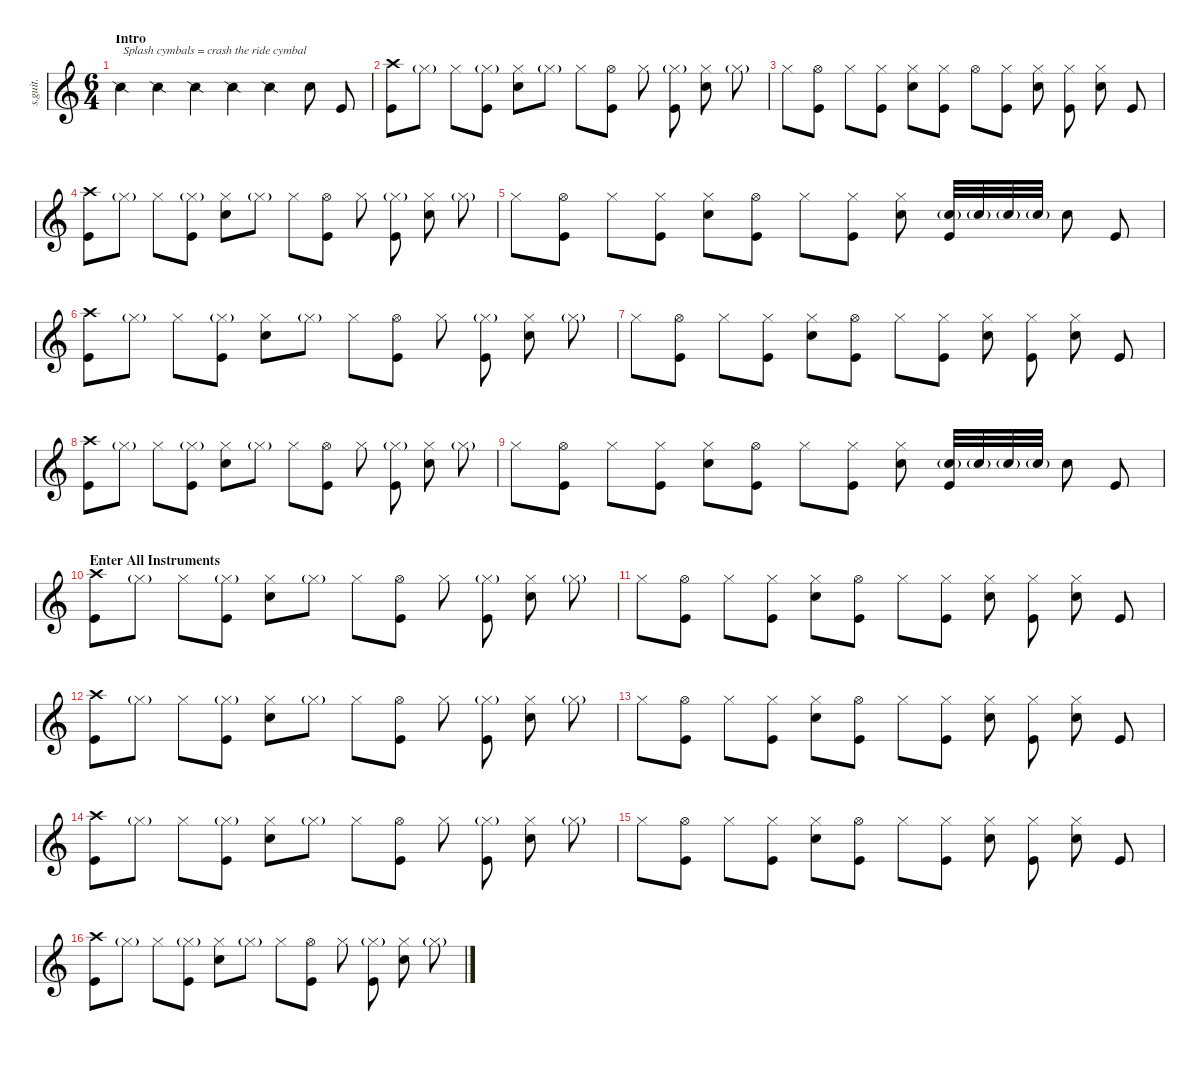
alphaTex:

\defaultSystemsLayout 4
\hideDynamics
\bracketExtendMode nobrackets
\track ("Steve Lamos" "s.guit.") {instrument percussion}
\staff {score}
\articulation defaults
\ts (6 4)
\beaming (8 2 2 2 2)
\section ("" "Intro")
\tempo (144 hide)
\clef g2
\ks c "Snare (side stick) 2".4{txt "Splash cymbals = crash the ride cymbal" lyrics (0 "") lyrics (1 "") lyrics (2 "") lyrics (3 "") lyrics (4 "") dy f} "Snare (side stick) 2".4{lyrics (0 "") lyrics (1 "") lyrics (2 "") lyrics (3 "") lyrics (4 "")} "Snare (side stick) 2".4{lyrics (0 "") lyrics (1 "") lyrics (2 "") lyrics (3 "") lyrics (4 "")} "Snare (side stick) 2".4{lyrics (0 "") lyrics (1 "") lyrics (2 "") lyrics (3 "") lyrics (4 "")} "Snare (side stick) 2".4{lyrics (0 "") lyrics (1 "") lyrics (2 "") lyrics (3 "") lyrics (4 "")} "Snare (hit) 2".8{lyrics (0 "") lyrics (1 "") lyrics (2 "") lyrics (3 "") lyrics (4 "")} "Kick (hit)".8{lyrics (0 "") lyrics (1 "") lyrics (2 "") lyrics (3 "") lyrics (4 "")}
|
("Crash high (hit)" "Kick (hit)").8{lyrics (0 "") lyrics (1 "") lyrics (2 "") lyrics (3 "") lyrics (4 "") dy mf} "Hi-Hat (closed)"{g}.8{lyrics (0 "") lyrics (1 "") lyrics (2 "") lyrics (3 "") lyrics (4 "") dy ff} "Hi-Hat (closed)".8{lyrics (0 "") lyrics (1 "") lyrics (2 "") lyrics (3 "") lyrics (4 "") dy mf} ("Hi-Hat (closed)"{g} "Kick (hit)").8{lyrics (0 "") lyrics (1 "") lyrics (2 "") lyrics (3 "") lyrics (4 "")} ("Hi-Hat (closed)" "Snare (hit) 2").8{lyrics (0 "") lyrics (1 "") lyrics (2 "") lyrics (3 "") lyrics (4 "")} "Hi-Hat (closed)"{g}.8{lyrics (0 "") lyrics (1 "") lyrics (2 "") lyrics (3 "") lyrics (4 "") dy ff} "Hi-Hat (closed)".8{lyrics (0 "") lyrics (1 "") lyrics (2 "") lyrics (3 "") lyrics (4 "") dy mf} ("Hi-Hat (open)" "Kick (hit)").8{lyrics (0 "") lyrics (1 "") lyrics (2 "") lyrics (3 "") lyrics (4 "")} "Hi-Hat (closed)".8{lyrics (0 "") lyrics (1 "") lyrics (2 "") lyrics (3 "") lyrics (4 "")} ("Hi-Hat (closed)"{g} "Kick (hit)").8{lyrics (0 "") lyrics (1 "") lyrics (2 "") lyrics (3 "") lyrics (4 "")} ("Hi-Hat (closed)" "Snare (hit) 2").8{lyrics (0 "") lyrics (1 "") lyrics (2 "") lyrics (3 "") lyrics (4 "")} "Hi-Hat (closed)"{g}.8{lyrics (0 "") lyrics (1 "") lyrics (2 "") lyrics (3 "") lyrics (4 "") dy ff} |
"Hi-Hat (closed)".8{lyrics (0 "") lyrics (1 "") lyrics (2 "") lyrics (3 "") lyrics (4 "") dy mf} ("Hi-Hat (open)" "Kick (hit)").8{lyrics (0 "") lyrics (1 "") lyrics (2 "") lyrics (3 "") lyrics (4 "")} "Hi-Hat (closed)".8{lyrics (0 "") lyrics (1 "") lyrics (2 "") lyrics (3 "") lyrics (4 "")} ("Hi-Hat (closed)" "Kick (hit)").8{lyrics (0 "") lyrics (1 "") lyrics (2 "") lyrics (3 "") lyrics (4 "")} ("Hi-Hat (closed)" "Snare (hit) 2").8{lyrics (0 "") lyrics (1 "") lyrics (2 "") lyrics (3 "") lyrics (4 "")} ("Hi-Hat (closed)" "Kick (hit)").8{lyrics (0 "") lyrics (1 "") lyrics (2 "") lyrics (3 "") lyrics (4 "")} "Hi-Hat (open)".8{lyrics (0 "") lyrics (1 "") lyrics (2 "") lyrics (3 "") lyrics (4 "")} ("Hi-Hat (closed)" "Kick (hit)").8{lyrics (0 "") lyrics (1 "") lyrics (2 "") lyrics (3 "") lyrics (4 "")} ("Hi-Hat (closed)" "Snare (hit) 2").8{lyrics (0 "") lyrics (1 "") lyrics (2 "") lyrics (3 "") lyrics (4 "")} ("Hi-Hat (closed)" "Kick (hit)").8{lyrics (0 "") lyrics (1 "") lyrics (2 "") lyrics (3 "") lyrics (4 "") dy f} ("Hi-Hat (closed)" "Snare (hit) 2").8{lyrics (0 "") lyrics (1 "") lyrics (2 "") lyrics (3 "") lyrics (4 "")} "Kick (hit)".8{lyrics (0 "") lyrics (1 "") lyrics (2 "") lyrics (3 "") lyrics (4 "")} |
("Crash high (hit)" "Kick (hit)").8{lyrics (0 "") lyrics (1 "") lyrics (2 "") lyrics (3 "") lyrics (4 "") dy mf} "Hi-Hat (closed)"{g}.8{lyrics (0 "") lyrics (1 "") lyrics (2 "") lyrics (3 "") lyrics (4 "") dy ff} "Hi-Hat (closed)".8{lyrics (0 "") lyrics (1 "") lyrics (2 "") lyrics (3 "") lyrics (4 "") dy mf} ("Hi-Hat (closed)"{g} "Kick (hit)").8{lyrics (0 "") lyrics (1 "") lyrics (2 "") lyrics (3 "") lyrics (4 "")} ("Hi-Hat (closed)" "Snare (hit) 2").8{lyrics (0 "") lyrics (1 "") lyrics (2 "") lyrics (3 "") lyrics (4 "")} "Hi-Hat (closed)"{g}.8{lyrics (0 "") lyrics (1 "") lyrics (2 "") lyrics (3 "") lyrics (4 "") dy ff} "Hi-Hat (closed)".8{lyrics (0 "") lyrics (1 "") lyrics (2 "") lyrics (3 "") lyrics (4 "") dy mf} ("Hi-Hat (open)" "Kick (hit)").8{lyrics (0 "") lyrics (1 "") lyrics (2 "") lyrics (3 "") lyrics (4 "")} "Hi-Hat (closed)".8{lyrics (0 "") lyrics (1 "") lyrics (2 "") lyrics (3 "") lyrics (4 "")} ("Hi-Hat (closed)"{g} "Kick (hit)").8{lyrics (0 "") lyrics (1 "") lyrics (2 "") lyrics (3 "") lyrics (4 "")} ("Hi-Hat (closed)" "Snare (hit) 2").8{lyrics (0 "") lyrics (1 "") lyrics (2 "") lyrics (3 "") lyrics (4 "")} "Hi-Hat (closed)"{g}.8{lyrics (0 "") lyrics (1 "") lyrics (2 "") lyrics (3 "") lyrics (4 "") dy ff} |
"Hi-Hat (closed)".8{lyrics (0 "") lyrics (1 "") lyrics (2 "") lyrics (3 "") lyrics (4 "") dy mf} ("Hi-Hat (open)" "Kick (hit)").8{lyrics (0 "") lyrics (1 "") lyrics (2 "") lyrics (3 "") lyrics (4 "")} "Hi-Hat (closed)".8{lyrics (0 "") lyrics (1 "") lyrics (2 "") lyrics (3 "") lyrics (4 "")} ("Hi-Hat (closed)" "Kick (hit)").8{lyrics (0 "") lyrics (1 "") lyrics (2 "") lyrics (3 "") lyrics (4 "")} ("Hi-Hat (closed)" "Snare (hit) 2").8{lyrics (0 "") lyrics (1 "") lyrics (2 "") lyrics (3 "") lyrics (4 "")} ("Hi-Hat (open)" "Kick (hit)").8{lyrics (0 "") lyrics (1 "") lyrics (2 "") lyrics (3 "") lyrics (4 "")} "Hi-Hat (closed)".8{lyrics (0 "") lyrics (1 "") lyrics (2 "") lyrics (3 "") lyrics (4 "")} ("Hi-Hat (closed)" "Kick (hit)").8{lyrics (0 "") lyrics (1 "") lyrics (2 "") lyrics (3 "") lyrics (4 "")} ("Hi-Hat (closed)" "Snare (hit) 2").8{lyrics (0 "") lyrics (1 "") lyrics (2 "") lyrics (3 "") lyrics (4 "")} ("Kick (hit)" "Snare (hit) 2"{g}).32{lyrics (0 "") lyrics (1 "") lyrics (2 "") lyrics (3 "") lyrics (4 "")} "Snare (hit) 2"{g}.32{lyrics (0 "") lyrics (1 "") lyrics (2 "") lyrics (3 "") lyrics (4 "") dy f} "Snare (hit) 2"{g}.32{lyrics (0 "") lyrics (1 "") lyrics (2 "") lyrics (3 "") lyrics (4 "")} "Snare (hit) 2"{g}.32{lyrics (0 "") lyrics (1 "") lyrics (2 "") lyrics (3 "") lyrics (4 "")} "Snare (hit) 2".8{lyrics (0 "") lyrics (1 "") lyrics (2 "") lyrics (3 "") lyrics (4 "")} "Kick (hit)".8{lyrics (0 "") lyrics (1 "") lyrics (2 "") lyrics (3 "") lyrics (4 "") dy mf} |
("Crash high (hit)" "Kick (hit)").8{lyrics (0 "") lyrics (1 "") lyrics (2 "") lyrics (3 "") lyrics (4 "")} "Hi-Hat (closed)"{g}.8{lyrics (0 "") lyrics (1 "") lyrics (2 "") lyrics (3 "") lyrics (4 "") dy ff} "Hi-Hat (closed)".8{lyrics (0 "") lyrics (1 "") lyrics (2 "") lyrics (3 "") lyrics (4 "") dy mf} ("Hi-Hat (closed)"{g} "Kick (hit)").8{lyrics (0 "") lyrics (1 "") lyrics (2 "") lyrics (3 "") lyrics (4 "")} ("Hi-Hat (closed)" "Snare (hit) 2").8{lyrics (0 "") lyrics (1 "") lyrics (2 "") lyrics (3 "") lyrics (4 "")} "Hi-Hat (closed)"{g}.8{lyrics (0 "") lyrics (1 "") lyrics (2 "") lyrics (3 "") lyrics (4 "") dy ff} "Hi-Hat (closed)".8{lyrics (0 "") lyrics (1 "") lyrics (2 "") lyrics (3 "") lyrics (4 "") dy mf} ("Hi-Hat (open)" "Kick (hit)").8{lyrics (0 "") lyrics (1 "") lyrics (2 "") lyrics (3 "") lyrics (4 "")} "Hi-Hat (closed)".8{lyrics (0 "") lyrics (1 "") lyrics (2 "") lyrics (3 "") lyrics (4 "")} ("Hi-Hat (closed)"{g} "Kick (hit)").8{lyrics (0 "") lyrics (1 "") lyrics (2 "") lyrics (3 "") lyrics (4 "")} ("Hi-Hat (closed)" "Snare (hit) 2").8{lyrics (0 "") lyrics (1 "") lyrics (2 "") lyrics (3 "") lyrics (4 "")} "Hi-Hat (closed)"{g}.8{lyrics (0 "") lyrics (1 "") lyrics (2 "") lyrics (3 "") lyrics (4 "") dy ff} |
"Hi-Hat (closed)".8{lyrics (0 "") lyrics (1 "") lyrics (2 "") lyrics (3 "") lyrics (4 "") dy mf} ("Hi-Hat (open)" "Kick (hit)").8{lyrics (0 "") lyrics (1 "") lyrics (2 "") lyrics (3 "") lyrics (4 "")} "Hi-Hat (closed)".8{lyrics (0 "") lyrics (1 "") lyrics (2 "") lyrics (3 "") lyrics (4 "")} ("Hi-Hat (closed)" "Kick (hit)").8{lyrics (0 "") lyrics (1 "") lyrics (2 "") lyrics (3 "") lyrics (4 "")} ("Hi-Hat (closed)" "Snare (hit) 2").8{lyrics (0 "") lyrics (1 "") lyrics (2 "") lyrics (3 "") lyrics (4 "")} ("Hi-Hat (open)" "Kick (hit)").8{lyrics (0 "") lyrics (1 "") lyrics (2 "") lyrics (3 "") lyrics (4 "")} "Hi-Hat (closed)".8{lyrics (0 "") lyrics (1 "") lyrics (2 "") lyrics (3 "") lyrics (4 "")} ("Hi-Hat (closed)" "Kick (hit)").8{lyrics (0 "") lyrics (1 "") lyrics (2 "") lyrics (3 "") lyrics (4 "")} ("Hi-Hat (closed)" "Snare (hit) 2").8{lyrics (0 "") lyrics (1 "") lyrics (2 "") lyrics (3 "") lyrics (4 "")} ("Hi-Hat (closed)" "Kick (hit)").8{lyrics (0 "") lyrics (1 "") lyrics (2 "") lyrics (3 "") lyrics (4 "") dy f} ("Hi-Hat (closed)" "Snare (hit) 2").8{lyrics (0 "") lyrics (1 "") lyrics (2 "") lyrics (3 "") lyrics (4 "")} "Kick (hit)".8{lyrics (0 "") lyrics (1 "") lyrics (2 "") lyrics (3 "") lyrics (4 "")} |
("Crash high (hit)" "Kick (hit)").8{lyrics (0 "") lyrics (1 "") lyrics (2 "") lyrics (3 "") lyrics (4 "") dy mf} "Hi-Hat (closed)"{g}.8{lyrics (0 "") lyrics (1 "") lyrics (2 "") lyrics (3 "") lyrics (4 "") dy ff} "Hi-Hat (closed)".8{lyrics (0 "") lyrics (1 "") lyrics (2 "") lyrics (3 "") lyrics (4 "") dy mf} ("Hi-Hat (closed)"{g} "Kick (hit)").8{lyrics (0 "") lyrics (1 "") lyrics (2 "") lyrics (3 "") lyrics (4 "")} ("Hi-Hat (closed)" "Snare (hit) 2").8{lyrics (0 "") lyrics (1 "") lyrics (2 "") lyrics (3 "") lyrics (4 "")} "Hi-Hat (closed)"{g}.8{lyrics (0 "") lyrics (1 "") lyrics (2 "") lyrics (3 "") lyrics (4 "") dy ff} "Hi-Hat (closed)".8{lyrics (0 "") lyrics (1 "") lyrics (2 "") lyrics (3 "") lyrics (4 "") dy mf} ("Hi-Hat (open)" "Kick (hit)").8{lyrics (0 "") lyrics (1 "") lyrics (2 "") lyrics (3 "") lyrics (4 "")} "Hi-Hat (closed)".8{lyrics (0 "") lyrics (1 "") lyrics (2 "") lyrics (3 "") lyrics (4 "")} ("Hi-Hat (closed)"{g} "Kick (hit)").8{lyrics (0 "") lyrics (1 "") lyrics (2 "") lyrics (3 "") lyrics (4 "")} ("Hi-Hat (closed)" "Snare (hit) 2").8{lyrics (0 "") lyrics (1 "") lyrics (2 "") lyrics (3 "") lyrics (4 "")} "Hi-Hat (closed)"{g}.8{lyrics (0 "") lyrics (1 "") lyrics (2 "") lyrics (3 "") lyrics (4 "") dy ff} |
"Hi-Hat (closed)".8{lyrics (0 "") lyrics (1 "") lyrics (2 "") lyrics (3 "") lyrics (4 "") dy mf} ("Hi-Hat (open)" "Kick (hit)").8{lyrics (0 "") lyrics (1 "") lyrics (2 "") lyrics (3 "") lyrics (4 "")} "Hi-Hat (closed)".8{lyrics (0 "") lyrics (1 "") lyrics (2 "") lyrics (3 "") lyrics (4 "")} ("Hi-Hat (closed)" "Kick (hit)").8{lyrics (0 "") lyrics (1 "") lyrics (2 "") lyrics (3 "") lyrics (4 "")} ("Hi-Hat (closed)" "Snare (hit) 2").8{lyrics (0 "") lyrics (1 "") lyrics (2 "") lyrics (3 "") lyrics (4 "")} ("Hi-Hat (open)" "Kick (hit)").8{lyrics (0 "") lyrics (1 "") lyrics (2 "") lyrics (3 "") lyrics (4 "")} "Hi-Hat (closed)".8{lyrics (0 "") lyrics (1 "") lyrics (2 "") lyrics (3 "") lyrics (4 "")} ("Hi-Hat (closed)" "Kick (hit)").8{lyrics (0 "") lyrics (1 "") lyrics (2 "") lyrics (3 "") lyrics (4 "")} ("Hi-Hat (closed)" "Snare (hit) 2").8{lyrics (0 "") lyrics (1 "") lyrics (2 "") lyrics (3 "") lyrics (4 "")} ("Kick (hit)" "Snare (hit) 2"{g}).32{lyrics (0 "") lyrics (1 "") lyrics (2 "") lyrics (3 "") lyrics (4 "")} "Snare (hit) 2"{g}.32{lyrics (0 "") lyrics (1 "") lyrics (2 "") lyrics (3 "") lyrics (4 "") dy f} "Snare (hit) 2"{g}.32{lyrics (0 "") lyrics (1 "") lyrics (2 "") lyrics (3 "") lyrics (4 "")} "Snare (hit) 2"{g}.32{lyrics (0 "") lyrics (1 "") lyrics (2 "") lyrics (3 "") lyrics (4 "")} "Snare (hit) 2".8{lyrics (0 "") lyrics (1 "") lyrics (2 "") lyrics (3 "") lyrics (4 "")} "Kick (hit)".8{lyrics (0 "") lyrics (1 "") lyrics (2 "") lyrics (3 "") lyrics (4 "") dy mf} |
\section ("" "Enter All Instruments")
("Crash high (hit)" "Kick (hit)").8{lyrics (0 "") lyrics (1 "") lyrics (2 "") lyrics (3 "") lyrics (4 "")} "Hi-Hat (closed)"{g}.8{lyrics (0 "") lyrics (1 "") lyrics (2 "") lyrics (3 "") lyrics (4 "") dy ff} "Hi-Hat (closed)".8{lyrics (0 "") lyrics (1 "") lyrics (2 "") lyrics (3 "") lyrics (4 "") dy mf} ("Hi-Hat (closed)"{g} "Kick (hit)").8{lyrics (0 "") lyrics (1 "") lyrics (2 "") lyrics (3 "") lyrics (4 "")} ("Hi-Hat (closed)" "Snare (hit) 2").8{lyrics (0 "") lyrics (1 "") lyrics (2 "") lyrics (3 "") lyrics (4 "")} "Hi-Hat (closed)"{g}.8{lyrics (0 "") lyrics (1 "") lyrics (2 "") lyrics (3 "") lyrics (4 "") dy ff} "Hi-Hat (closed)".8{lyrics (0 "") lyrics (1 "") lyrics (2 "") lyrics (3 "") lyrics (4 "") dy mf} ("Hi-Hat (open)" "Kick (hit)").8{lyrics (0 "") lyrics (1 "") lyrics (2 "") lyrics (3 "") lyrics (4 "")} "Hi-Hat (closed)".8{lyrics (0 "") lyrics (1 "") lyrics (2 "") lyrics (3 "") lyrics (4 "")} ("Hi-Hat (closed)"{g} "Kick (hit)").8{lyrics (0 "") lyrics (1 "") lyrics (2 "") lyrics (3 "") lyrics (4 "")} ("Hi-Hat (closed)" "Snare (hit) 2").8{lyrics (0 "") lyrics (1 "") lyrics (2 "") lyrics (3 "") lyrics (4 "")} "Hi-Hat (closed)"{g}.8{lyrics (0 "") lyrics (1 "") lyrics (2 "") lyrics (3 "") lyrics (4 "") dy ff} |
"Hi-Hat (closed)".8{lyrics (0 "") lyrics (1 "") lyrics (2 "") lyrics (3 "") lyrics (4 "") dy mf} ("Hi-Hat (open)" "Kick (hit)").8{lyrics (0 "") lyrics (1 "") lyrics (2 "") lyrics (3 "") lyrics (4 "")} "Hi-Hat (closed)".8{lyrics (0 "") lyrics (1 "") lyrics (2 "") lyrics (3 "") lyrics (4 "")} ("Hi-Hat (closed)" "Kick (hit)").8{lyrics (0 "") lyrics (1 "") lyrics (2 "") lyrics (3 "") lyrics (4 "")} ("Hi-Hat (closed)" "Snare (hit) 2").8{lyrics (0 "") lyrics (1 "") lyrics (2 "") lyrics (3 "") lyrics (4 "")} ("Hi-Hat (open)" "Kick (hit)").8{lyrics (0 "") lyrics (1 "") lyrics (2 "") lyrics (3 "") lyrics (4 "")} "Hi-Hat (closed)".8{lyrics (0 "") lyrics (1 "") lyrics (2 "") lyrics (3 "") lyrics (4 "")} ("Hi-Hat (closed)" "Kick (hit)").8{lyrics (0 "") lyrics (1 "") lyrics (2 "") lyrics (3 "") lyrics (4 "")} ("Hi-Hat (closed)" "Snare (hit) 2").8{lyrics (0 "") lyrics (1 "") lyrics (2 "") lyrics (3 "") lyrics (4 "")} ("Hi-Hat (closed)" "Kick (hit)").8{lyrics (0 "") lyrics (1 "") lyrics (2 "") lyrics (3 "") lyrics (4 "") dy f} ("Hi-Hat (closed)" "Snare (hit) 2").8{lyrics (0 "") lyrics (1 "") lyrics (2 "") lyrics (3 "") lyrics (4 "")} "Kick (hit)".8{lyrics (0 "") lyrics (1 "") lyrics (2 "") lyrics (3 "") lyrics (4 "")} |
("Crash high (hit)" "Kick (hit)").8{lyrics (0 "") lyrics (1 "") lyrics (2 "") lyrics (3 "") lyrics (4 "") dy mf} "Hi-Hat (closed)"{g}.8{lyrics (0 "") lyrics (1 "") lyrics (2 "") lyrics (3 "") lyrics (4 "") dy ff} "Hi-Hat (closed)".8{lyrics (0 "") lyrics (1 "") lyrics (2 "") lyrics (3 "") lyrics (4 "") dy mf} ("Hi-Hat (closed)"{g} "Kick (hit)").8{lyrics (0 "") lyrics (1 "") lyrics (2 "") lyrics (3 "") lyrics (4 "")} ("Hi-Hat (closed)" "Snare (hit) 2").8{lyrics (0 "") lyrics (1 "") lyrics (2 "") lyrics (3 "") lyrics (4 "")} "Hi-Hat (closed)"{g}.8{lyrics (0 "") lyrics (1 "") lyrics (2 "") lyrics (3 "") lyrics (4 "") dy ff} "Hi-Hat (closed)".8{lyrics (0 "") lyrics (1 "") lyrics (2 "") lyrics (3 "") lyrics (4 "") dy mf} ("Hi-Hat (open)" "Kick (hit)").8{lyrics (0 "") lyrics (1 "") lyrics (2 "") lyrics (3 "") lyrics (4 "")} "Hi-Hat (closed)".8{lyrics (0 "") lyrics (1 "") lyrics (2 "") lyrics (3 "") lyrics (4 "")} ("Hi-Hat (closed)"{g} "Kick (hit)").8{lyrics (0 "") lyrics (1 "") lyrics (2 "") lyrics (3 "") lyrics (4 "")} ("Hi-Hat (closed)" "Snare (hit) 2").8{lyrics (0 "") lyrics (1 "") lyrics (2 "") lyrics (3 "") lyrics (4 "")} "Hi-Hat (closed)"{g}.8{lyrics (0 "") lyrics (1 "") lyrics (2 "") lyrics (3 "") lyrics (4 "") dy ff} |
"Hi-Hat (closed)".8{lyrics (0 "") lyrics (1 "") lyrics (2 "") lyrics (3 "") lyrics (4 "") dy mf} ("Hi-Hat (open)" "Kick (hit)").8{lyrics (0 "") lyrics (1 "") lyrics (2 "") lyrics (3 "") lyrics (4 "")} "Hi-Hat (closed)".8{lyrics (0 "") lyrics (1 "") lyrics (2 "") lyrics (3 "") lyrics (4 "")} ("Hi-Hat (closed)" "Kick (hit)").8{lyrics (0 "") lyrics (1 "") lyrics (2 "") lyrics (3 "") lyrics (4 "")} ("Hi-Hat (closed)" "Snare (hit) 2").8{lyrics (0 "") lyrics (1 "") lyrics (2 "") lyrics (3 "") lyrics (4 "")} ("Hi-Hat (open)" "Kick (hit)").8{lyrics (0 "") lyrics (1 "") lyrics (2 "") lyrics (3 "") lyrics (4 "")} "Hi-Hat (closed)".8{lyrics (0 "") lyrics (1 "") lyrics (2 "") lyrics (3 "") lyrics (4 "")} ("Hi-Hat (closed)" "Kick (hit)").8{lyrics (0 "") lyrics (1 "") lyrics (2 "") lyrics (3 "") lyrics (4 "")} ("Hi-Hat (closed)" "Snare (hit) 2").8{lyrics (0 "") lyrics (1 "") lyrics (2 "") lyrics (3 "") lyrics (4 "")} ("Hi-Hat (closed)" "Kick (hit)").8{lyrics (0 "") lyrics (1 "") lyrics (2 "") lyrics (3 "") lyrics (4 "") dy f} ("Hi-Hat (closed)" "Snare (hit) 2").8{lyrics (0 "") lyrics (1 "") lyrics (2 "") lyrics (3 "") lyrics (4 "")} "Kick (hit)".8{lyrics (0 "") lyrics (1 "") lyrics (2 "") lyrics (3 "") lyrics (4 "")} |
("Crash high (hit)" "Kick (hit)").8{lyrics (0 "") lyrics (1 "") lyrics (2 "") lyrics (3 "") lyrics (4 "") dy mf} "Hi-Hat (closed)"{g}.8{lyrics (0 "") lyrics (1 "") lyrics (2 "") lyrics (3 "") lyrics (4 "") dy ff} "Hi-Hat (closed)".8{lyrics (0 "") lyrics (1 "") lyrics (2 "") lyrics (3 "") lyrics (4 "") dy mf} ("Hi-Hat (closed)"{g} "Kick (hit)").8{lyrics (0 "") lyrics (1 "") lyrics (2 "") lyrics (3 "") lyrics (4 "")} ("Hi-Hat (closed)" "Snare (hit) 2").8{lyrics (0 "") lyrics (1 "") lyrics (2 "") lyrics (3 "") lyrics (4 "")} "Hi-Hat (closed)"{g}.8{lyrics (0 "") lyrics (1 "") lyrics (2 "") lyrics (3 "") lyrics (4 "") dy ff} "Hi-Hat (closed)".8{lyrics (0 "") lyrics (1 "") lyrics (2 "") lyrics (3 "") lyrics (4 "") dy mf} ("Hi-Hat (open)" "Kick (hit)").8{lyrics (0 "") lyrics (1 "") lyrics (2 "") lyrics (3 "") lyrics (4 "")} "Hi-Hat (closed)".8{lyrics (0 "") lyrics (1 "") lyrics (2 "") lyrics (3 "") lyrics (4 "")} ("Hi-Hat (closed)"{g} "Kick (hit)").8{lyrics (0 "") lyrics (1 "") lyrics (2 "") lyrics (3 "") lyrics (4 "")} ("Hi-Hat (closed)" "Snare (hit) 2").8{lyrics (0 "") lyrics (1 "") lyrics (2 "") lyrics (3 "") lyrics (4 "")} "Hi-Hat (closed)"{g}.8{lyrics (0 "") lyrics (1 "") lyrics (2 "") lyrics (3 "") lyrics (4 "") dy ff} |
"Hi-Hat (closed)".8{lyrics (0 "") lyrics (1 "") lyrics (2 "") lyrics (3 "") lyrics (4 "") dy mf} ("Hi-Hat (open)" "Kick (hit)").8{lyrics (0 "") lyrics (1 "") lyrics (2 "") lyrics (3 "") lyrics (4 "")} "Hi-Hat (closed)".8{lyrics (0 "") lyrics (1 "") lyrics (2 "") lyrics (3 "") lyrics (4 "")} ("Hi-Hat (closed)" "Kick (hit)").8{lyrics (0 "") lyrics (1 "") lyrics (2 "") lyrics (3 "") lyrics (4 "")} ("Hi-Hat (closed)" "Snare (hit) 2").8{lyrics (0 "") lyrics (1 "") lyrics (2 "") lyrics (3 "") lyrics (4 "")} ("Hi-Hat (open)" "Kick (hit)").8{lyrics (0 "") lyrics (1 "") lyrics (2 "") lyrics (3 "") lyrics (4 "")} "Hi-Hat (closed)".8{lyrics (0 "") lyrics (1 "") lyrics (2 "") lyrics (3 "") lyrics (4 "")} ("Hi-Hat (closed)" "Kick (hit)").8{lyrics (0 "") lyrics (1 "") lyrics (2 "") lyrics (3 "") lyrics (4 "")} ("Hi-Hat (closed)" "Snare (hit) 2").8{lyrics (0 "") lyrics (1 "") lyrics (2 "") lyrics (3 "") lyrics (4 "")} ("Hi-Hat (closed)" "Kick (hit)").8{lyrics (0 "") lyrics (1 "") lyrics (2 "") lyrics (3 "") lyrics (4 "") dy f} ("Hi-Hat (closed)" "Snare (hit) 2").8{lyrics (0 "") lyrics (1 "") lyrics (2 "") lyrics (3 "") lyrics (4 "")} "Kick (hit)".8{lyrics (0 "") lyrics (1 "") lyrics (2 "") lyrics (3 "") lyrics (4 "")} |
("Crash high (hit)" "Kick (hit)").8{lyrics (0 "") lyrics (1 "") lyrics (2 "") lyrics (3 "") lyrics (4 "") dy mf} "Hi-Hat (closed)"{g}.8{lyrics (0 "") lyrics (1 "") lyrics (2 "") lyrics (3 "") lyrics (4 "") dy ff} "Hi-Hat (closed)".8{lyrics (0 "") lyrics (1 "") lyrics (2 "") lyrics (3 "") lyrics (4 "") dy mf} ("Hi-Hat (closed)"{g} "Kick (hit)").8{lyrics (0 "") lyrics (1 "") lyrics (2 "") lyrics (3 "") lyrics (4 "")} ("Hi-Hat (closed)" "Snare (hit) 2").8{lyrics (0 "") lyrics (1 "") lyrics (2 "") lyrics (3 "") lyrics (4 "")} "Hi-Hat (closed)"{g}.8{lyrics (0 "") lyrics (1 "") lyrics (2 "") lyrics (3 "") lyrics (4 "") dy ff} "Hi-Hat (closed)".8{lyrics (0 "") lyrics (1 "") lyrics (2 "") lyrics (3 "") lyrics (4 "") dy mf} ("Hi-Hat (open)" "Kick (hit)").8{lyrics (0 "") lyrics (1 "") lyrics (2 "") lyrics (3 "") lyrics (4 "")} "Hi-Hat (closed)".8{lyrics (0 "") lyrics (1 "") lyrics (2 "") lyrics (3 "") lyrics (4 "")} ("Hi-Hat (closed)"{g} "Kick (hit)").8{lyrics (0 "") lyrics (1 "") lyrics (2 "") lyrics (3 "") lyrics (4 "")} ("Hi-Hat (closed)" "Snare (hit) 2").8{lyrics (0 "") lyrics (1 "") lyrics (2 "") lyrics (3 "") lyrics (4 "")} "Hi-Hat (closed)"{g}.8{lyrics (0 "") lyrics (1 "") lyrics (2 "") lyrics (3 "") lyrics (4 "") dy ff}
